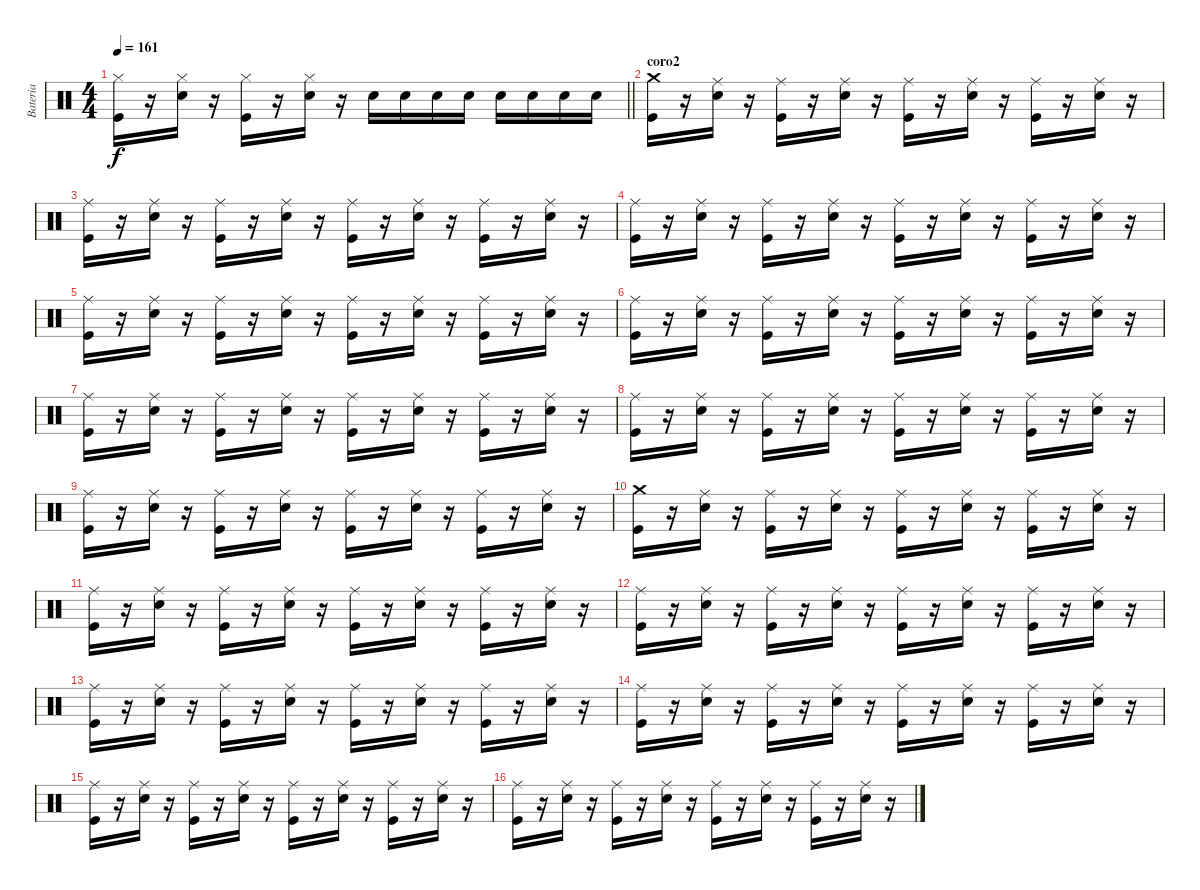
\track ("Bateria" "Bateria") {instrument percussion}
\staff {score}
\articulation defaults
\ts (4 4)
\tempo 161
\clef neutral
\barLineRight lightlight
\ks c
("Hi-Hat (closed)" "Kick (hit)").16{dy f} r.16 ("Hi-Hat (closed)" "Snare (hit) 2").16 r.16 ("Hi-Hat (closed)" "Kick (hit)").16 r.16 ("Hi-Hat (closed)" "Snare (hit) 2").16 r.16 "Snare (hit) 2".16 "Snare (hit) 2".16 "Snare (hit) 2".16 "Snare (hit) 2".16 "Snare (hit) 2".16 "Snare (hit) 2".16 "Snare (hit) 2".16 "Snare (hit) 2".16 |
\section ("" "coro2")
("Crash medium (hit)" "Kick (hit)").16 r.16 ("Ride (middle)" "Snare (hit) 2").16 r.16 ("Ride (middle)" "Kick (hit)").16 r.16 ("Ride (middle)" "Snare (hit) 2").16 r.16 ("Ride (middle)" "Kick (hit)").16 r.16 ("Ride (middle)" "Snare (hit) 2").16 r.16 ("Ride (middle)" "Kick (hit)").16 r.16 ("Ride (middle)" "Snare (hit) 2").16 r.16 |
("Ride (middle)" "Kick (hit)").16 r.16 ("Ride (middle)" "Snare (hit) 2").16 r.16 ("Ride (middle)" "Kick (hit)").16 r.16 ("Ride (middle)" "Snare (hit) 2").16 r.16 ("Ride (middle)" "Kick (hit)").16 r.16 ("Ride (middle)" "Snare (hit) 2").16 r.16 ("Ride (middle)" "Kick (hit)").16 r.16 ("Ride (middle)" "Snare (hit) 2").16 r.16 |
("Ride (middle)" "Kick (hit)").16 r.16 ("Ride (middle)" "Snare (hit) 2").16 r.16 ("Ride (middle)" "Kick (hit)").16 r.16 ("Ride (middle)" "Snare (hit) 2").16 r.16 ("Ride (middle)" "Kick (hit)").16 r.16 ("Ride (middle)" "Snare (hit) 2").16 r.16 ("Ride (middle)" "Kick (hit)").16 r.16 ("Ride (middle)" "Snare (hit) 2").16 r.16 |
("Ride (middle)" "Kick (hit)").16 r.16 ("Ride (middle)" "Snare (hit) 2").16 r.16 ("Ride (middle)" "Kick (hit)").16 r.16 ("Ride (middle)" "Snare (hit) 2").16 r.16 ("Ride (middle)" "Kick (hit)").16 r.16 ("Ride (middle)" "Snare (hit) 2").16 r.16 ("Ride (middle)" "Kick (hit)").16 r.16 ("Ride (middle)" "Snare (hit) 2").16 r.16 |
("Ride (middle)" "Kick (hit)").16 r.16 ("Ride (middle)" "Snare (hit) 2").16 r.16 ("Ride (middle)" "Kick (hit)").16 r.16 ("Ride (middle)" "Snare (hit) 2").16 r.16 ("Ride (middle)" "Kick (hit)").16 r.16 ("Ride (middle)" "Snare (hit) 2").16 r.16 ("Ride (middle)" "Kick (hit)").16 r.16 ("Ride (middle)" "Snare (hit) 2").16 r.16 |
("Ride (middle)" "Kick (hit)").16 r.16 ("Ride (middle)" "Snare (hit) 2").16 r.16 ("Ride (middle)" "Kick (hit)").16 r.16 ("Ride (middle)" "Snare (hit) 2").16 r.16 ("Ride (middle)" "Kick (hit)").16 r.16 ("Ride (middle)" "Snare (hit) 2").16 r.16 ("Ride (middle)" "Kick (hit)").16 r.16 ("Ride (middle)" "Snare (hit) 2").16 r.16 |
("Ride (middle)" "Kick (hit)").16 r.16 ("Ride (middle)" "Snare (hit) 2").16 r.16 ("Ride (middle)" "Kick (hit)").16 r.16 ("Ride (middle)" "Snare (hit) 2").16 r.16 ("Ride (middle)" "Kick (hit)").16 r.16 ("Ride (middle)" "Snare (hit) 2").16 r.16 ("Ride (middle)" "Kick (hit)").16 r.16 ("Ride (middle)" "Snare (hit) 2").16 r.16 |
("Ride (middle)" "Kick (hit)").16 r.16 ("Ride (middle)" "Snare (hit) 2").16 r.16 ("Ride (middle)" "Kick (hit)").16 r.16 ("Ride (middle)" "Snare (hit) 2").16 r.16 ("Ride (middle)" "Kick (hit)").16 r.16 ("Ride (middle)" "Snare (hit) 2").16 r.16 ("Ride (middle)" "Kick (hit)").16 r.16 ("Ride (middle)" "Snare (hit) 2").16 r.16 |
("Crash medium (hit)" "Kick (hit)").16 r.16 ("Ride (middle)" "Snare (hit) 2").16 r.16 ("Ride (middle)" "Kick (hit)").16 r.16 ("Ride (middle)" "Snare (hit) 2").16 r.16 ("Ride (middle)" "Kick (hit)").16 r.16 ("Ride (middle)" "Snare (hit) 2").16 r.16 ("Ride (middle)" "Kick (hit)").16 r.16 ("Ride (middle)" "Snare (hit) 2").16 r.16 |
("Ride (middle)" "Kick (hit)").16 r.16 ("Ride (middle)" "Snare (hit) 2").16 r.16 ("Ride (middle)" "Kick (hit)").16 r.16 ("Ride (middle)" "Snare (hit) 2").16 r.16 ("Ride (middle)" "Kick (hit)").16 r.16 ("Ride (middle)" "Snare (hit) 2").16 r.16 ("Ride (middle)" "Kick (hit)").16 r.16 ("Ride (middle)" "Snare (hit) 2").16 r.16 |
("Ride (middle)" "Kick (hit)").16 r.16 ("Ride (middle)" "Snare (hit) 2").16 r.16 ("Ride (middle)" "Kick (hit)").16 r.16 ("Ride (middle)" "Snare (hit) 2").16 r.16 ("Ride (middle)" "Kick (hit)").16 r.16 ("Ride (middle)" "Snare (hit) 2").16 r.16 ("Ride (middle)" "Kick (hit)").16 r.16 ("Ride (middle)" "Snare (hit) 2").16 r.16 |
("Ride (middle)" "Kick (hit)").16 r.16 ("Ride (middle)" "Snare (hit) 2").16 r.16 ("Ride (middle)" "Kick (hit)").16 r.16 ("Ride (middle)" "Snare (hit) 2").16 r.16 ("Ride (middle)" "Kick (hit)").16 r.16 ("Ride (middle)" "Snare (hit) 2").16 r.16 ("Ride (middle)" "Kick (hit)").16 r.16 ("Ride (middle)" "Snare (hit) 2").16 r.16 |
("Ride (middle)" "Kick (hit)").16 r.16 ("Ride (middle)" "Snare (hit) 2").16 r.16 ("Ride (middle)" "Kick (hit)").16 r.16 ("Ride (middle)" "Snare (hit) 2").16 r.16 ("Ride (middle)" "Kick (hit)").16 r.16 ("Ride (middle)" "Snare (hit) 2").16 r.16 ("Ride (middle)" "Kick (hit)").16 r.16 ("Ride (middle)" "Snare (hit) 2").16 r.16 |
("Ride (middle)" "Kick (hit)").16 r.16 ("Ride (middle)" "Snare (hit) 2").16 r.16 ("Ride (middle)" "Kick (hit)").16 r.16 ("Ride (middle)" "Snare (hit) 2").16 r.16 ("Ride (middle)" "Kick (hit)").16 r.16 ("Ride (middle)" "Snare (hit) 2").16 r.16 ("Ride (middle)" "Kick (hit)").16 r.16 ("Ride (middle)" "Snare (hit) 2").16 r.16 |
("Ride (middle)" "Kick (hit)").16 r.16 ("Ride (middle)" "Snare (hit) 2").16 r.16 ("Ride (middle)" "Kick (hit)").16 r.16 ("Ride (middle)" "Snare (hit) 2").16 r.16 ("Ride (middle)" "Kick (hit)").16 r.16 ("Ride (middle)" "Snare (hit) 2").16 r.16 ("Ride (middle)" "Kick (hit)").16 r.16 ("Ride (middle)" "Snare (hit) 2").16 r.16
